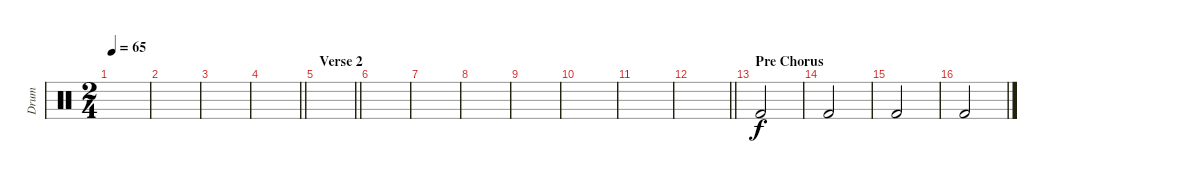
\track ("Drum" "Drum") {instrument percussion}
\staff {score}
\articulation defaults
\ts (2 4)
\tempo 65
\clef neutral
\ks c
|
|
|
\barLineRight lightlight
|
\section ("" "Verse 2")
\barLineRight lightlight
|
|
|
|
|
|
|
\barLineRight lightlight
|
\section ("" "Pre Chorus")
"Kick (hit) 2".2 |
"Kick (hit) 2".2 |
"Kick (hit) 2".2 |
"Kick (hit) 2".2
